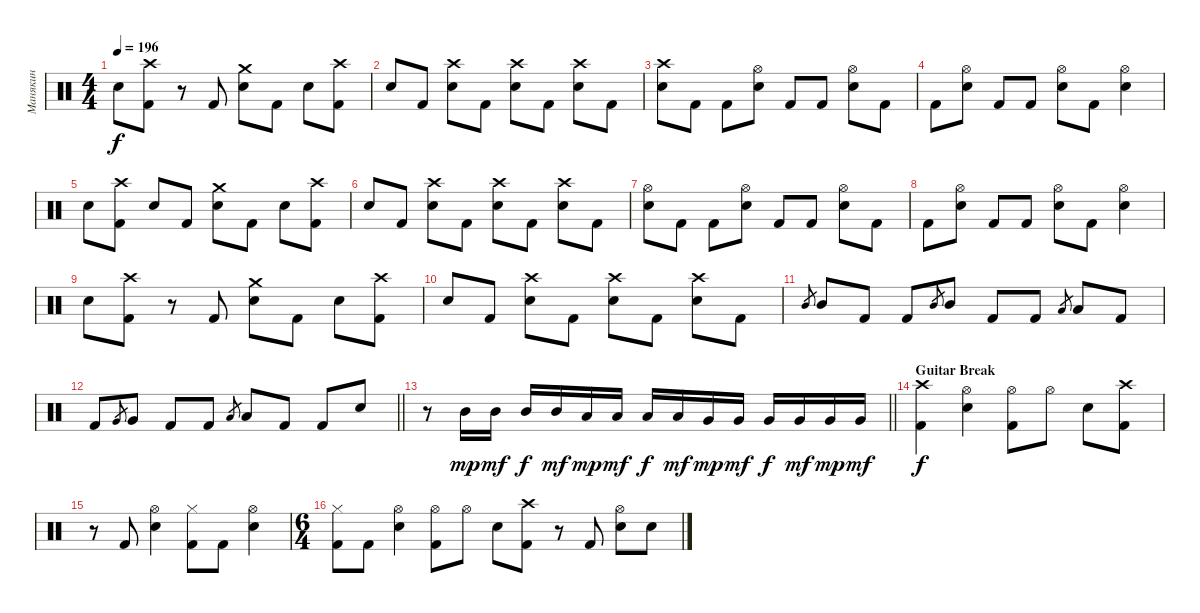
\track ("Манякин" "Манякин") {instrument percussion}
\staff {score}
\articulation defaults
\ts (4 4)
\tempo 196
\clef neutral
\ks c "Electric Snare (hit)".8{dy f}
("Crash high (hit)" "Kick (hit) 2").8 r.8 "Kick (hit) 2".8 ("Crash medium (hit)" "Electric Snare (hit)").8 "Kick (hit) 2".8 "Electric Snare (hit)".8 ("Crash high (hit)" "Kick (hit) 2").8 |
"Electric Snare (hit)".8 "Kick (hit) 2".8 ("Crash high (hit)" "Electric Snare (hit)").8 "Kick (hit) 2".8 ("Crash high (hit)" "Electric Snare (hit)").8 "Kick (hit) 2".8 ("Crash high (hit)" "Electric Snare (hit)").8 "Kick (hit) 2".8 |
("Crash high (hit)" "Electric Snare (hit)").8 "Kick (hit) 2".8 "Kick (hit) 2".8 ("Hi-Hat (open)" "Electric Snare (hit)").8 "Kick (hit) 2".8 "Kick (hit) 2".8 ("Hi-Hat (open)" "Electric Snare (hit)").8 "Kick (hit) 2".8 |
"Kick (hit) 2".8 ("Hi-Hat (open)" "Electric Snare (hit)").8 "Kick (hit) 2".8 "Kick (hit) 2".8 ("Hi-Hat (open)" "Electric Snare (hit)").8 "Kick (hit) 2".8 ("Hi-Hat (open)" "Electric Snare (hit)").4 |
"Electric Snare (hit)".8 ("Crash high (hit)" "Kick (hit) 2").8 "Electric Snare (hit)".8 "Kick (hit) 2".8 ("Crash medium (hit)" "Electric Snare (hit)").8 "Kick (hit) 2".8 "Electric Snare (hit)".8 ("Crash high (hit)" "Kick (hit) 2").8 |
"Electric Snare (hit)".8 "Kick (hit) 2".8 ("Crash high (hit)" "Electric Snare (hit)").8 "Kick (hit) 2".8 ("Crash high (hit)" "Electric Snare (hit)").8 "Kick (hit) 2".8 ("Crash high (hit)" "Electric Snare (hit)").8 "Kick (hit) 2".8 |
("Hi-Hat (open)" "Electric Snare (hit)").8 "Kick (hit) 2".8 "Kick (hit) 2".8 ("Hi-Hat (open)" "Electric Snare (hit)").8 "Kick (hit) 2".8 "Kick (hit) 2".8 ("Hi-Hat (open)" "Electric Snare (hit)").8 "Kick (hit) 2".8 |
"Kick (hit) 2".8 ("Hi-Hat (open)" "Electric Snare (hit)").8 "Kick (hit) 2".8 "Kick (hit) 2".8 ("Hi-Hat (open)" "Electric Snare (hit)").8 "Kick (hit) 2".8 ("Hi-Hat (open)" "Electric Snare (hit)").4 |
"Electric Snare (hit)".8 ("Crash high (hit)" "Kick (hit) 2").8 r.8 "Kick (hit) 2".8 ("Crash medium (hit)" "Electric Snare (hit)").8 "Kick (hit) 2".8 "Electric Snare (hit)".8 ("Crash high (hit)" "Kick (hit) 2").8 |
"Electric Snare (hit)".8 "Kick (hit) 2".8 ("Crash high (hit)" "Electric Snare (hit)").8 "Kick (hit) 2".8 ("Crash high (hit)" "Electric Snare (hit)").8 "Kick (hit) 2".8 ("Crash high (hit)" "Electric Snare (hit)").8 "Kick (hit) 2".8 |
"Mid Tom (hit)".8{gr} "Mid Tom (hit)".8 "Kick (hit) 2".8 "Kick (hit) 2".8 "Mid Tom (hit)".8{gr} "Mid Tom (hit)".8 "Kick (hit) 2".8 "Kick (hit) 2".8 "Low Tom (hit)".8{gr} "Low Tom (hit)".8 "Kick (hit) 2".8 |
\barLineRight lightlight "Kick (hit) 2".8 "Very Low Tom (hit)".8{gr} "Very Low Tom (hit)".8 "Kick (hit) 2".8 "Kick (hit) 2".8 "Low Floor Tom (hit)".8{gr} "Low Floor Tom (hit)".8 "Kick (hit) 2".8 "Kick (hit) 2".8 "Electric Snare (hit)".8
|
\barLineRight lightlight
r.8 "Mid Tom (hit)".16{dy mp} "Mid Tom (hit)".16{dy mf} "Mid Tom (hit)".16{dy f} "Mid Tom (hit)".16{dy mf} "Low Tom (hit)".16{dy mp} "Low Tom (hit)".16{dy mf} "Low Tom (hit)".16{dy f} "Low Tom (hit)".16{dy mf} "Very Low Tom (hit)".16{dy mp} "Very Low Tom (hit)".16{dy mf} "Very Low Tom (hit)".16{dy f} "Very Low Tom (hit)".16{dy mf} "Very Low Tom (hit)".16{dy mp} "Very Low Tom (hit)".16{dy mf} |
\section ("" "Guitar Break")
("Crash high (hit)" "Kick (hit) 2").4{dy f} ("Hi-Hat (open)" "Electric Snare (hit)").4 ("Hi-Hat (open)" "Kick (hit) 2").8 "Hi-Hat (open)".8 "Electric Snare (hit)".8 ("Crash high (hit)" "Kick (hit) 2").8 |
r.8 "Kick (hit) 2".8 ("Hi-Hat (open)" "Electric Snare (hit)").4 ("Hi-Hat (closed)" "Kick (hit) 2").8 "Kick (hit) 2".8 ("Hi-Hat (open)" "Electric Snare (hit)").4 |
\ts (6 4)
("Hi-Hat (closed)" "Kick (hit) 2").8 "Kick (hit) 2".8 ("Hi-Hat (open)" "Electric Snare (hit)").4 ("Hi-Hat (open)" "Kick (hit) 2").8 "Hi-Hat (open)".8 "Electric Snare (hit)".8 ("Crash high (hit)" "Kick (hit) 2").8 r.8 "Kick (hit) 2".8 ("Hi-Hat (open)" "Electric Snare (hit)").8 "Electric Snare (hit)".8
